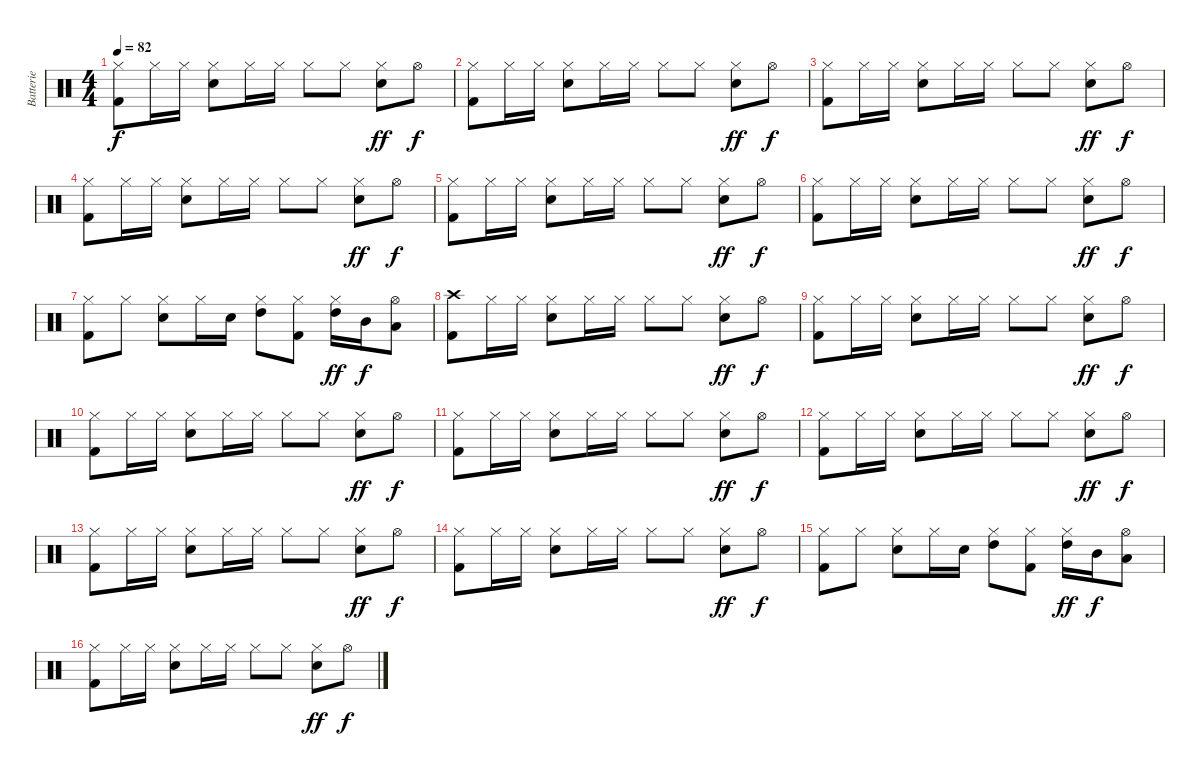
\track ("Batterie" "Batterie") {instrument percussion}
\staff {score}
\articulation defaults
\ts (4 4)
\tempo 82
\clef neutral
\ks c
("Hi-Hat (closed)" "Kick (hit) 2").8{dy f} "Hi-Hat (closed)".16 "Hi-Hat (closed)".16 ("Hi-Hat (closed)" "Electric Snare (hit)").8 "Hi-Hat (closed)".16 "Hi-Hat (closed)".16 "Hi-Hat (closed)".8 "Hi-Hat (closed)".8 ("Hi-Hat (closed)" "Electric Snare (hit)").8{dy ff} "Hi-Hat (open)".8{dy f} |
("Hi-Hat (closed)" "Kick (hit) 2").8 "Hi-Hat (closed)".16 "Hi-Hat (closed)".16 ("Hi-Hat (closed)" "Electric Snare (hit)").8 "Hi-Hat (closed)".16 "Hi-Hat (closed)".16 "Hi-Hat (closed)".8 "Hi-Hat (closed)".8 ("Hi-Hat (closed)" "Electric Snare (hit)").8{dy ff} "Hi-Hat (open)".8{dy f} |
("Hi-Hat (closed)" "Kick (hit) 2").8 "Hi-Hat (closed)".16 "Hi-Hat (closed)".16 ("Hi-Hat (closed)" "Electric Snare (hit)").8 "Hi-Hat (closed)".16 "Hi-Hat (closed)".16 "Hi-Hat (closed)".8 "Hi-Hat (closed)".8 ("Hi-Hat (closed)" "Electric Snare (hit)").8{dy ff} "Hi-Hat (open)".8{dy f} |
("Hi-Hat (closed)" "Kick (hit) 2").8 "Hi-Hat (closed)".16 "Hi-Hat (closed)".16 ("Hi-Hat (closed)" "Electric Snare (hit)").8 "Hi-Hat (closed)".16 "Hi-Hat (closed)".16 "Hi-Hat (closed)".8 "Hi-Hat (closed)".8 ("Hi-Hat (closed)" "Electric Snare (hit)").8{dy ff} "Hi-Hat (open)".8{dy f} |
("Hi-Hat (closed)" "Kick (hit) 2").8 "Hi-Hat (closed)".16 "Hi-Hat (closed)".16 ("Hi-Hat (closed)" "Electric Snare (hit)").8 "Hi-Hat (closed)".16 "Hi-Hat (closed)".16 "Hi-Hat (closed)".8 "Hi-Hat (closed)".8 ("Hi-Hat (closed)" "Electric Snare (hit)").8{dy ff} "Hi-Hat (open)".8{dy f} |
("Hi-Hat (closed)" "Kick (hit) 2").8 "Hi-Hat (closed)".16 "Hi-Hat (closed)".16 ("Hi-Hat (closed)" "Electric Snare (hit)").8 "Hi-Hat (closed)".16 "Hi-Hat (closed)".16 "Hi-Hat (closed)".8 "Hi-Hat (closed)".8 ("Hi-Hat (closed)" "Electric Snare (hit)").8{dy ff} "Hi-Hat (open)".8{dy f} |
("Hi-Hat (closed)" "Kick (hit) 2").8 "Hi-Hat (closed)".8 ("Hi-Hat (closed)" "Electric Snare (hit)").8 "Hi-Hat (closed)".16 "Electric Snare (hit)".16 ("Hi-Hat (closed)" "High Tom (hit)").8 ("Hi-Hat (closed)" "Kick (hit) 2").8 ("Hi-Hat (closed)" "High Tom (hit)").16{dy ff} "Mid Tom (hit)".16{dy f} ("Hi-Hat (open)" "Low Tom (hit)").8 |
("Crash high (hit)" "Kick (hit) 2").8 "Hi-Hat (closed)".16 "Hi-Hat (closed)".16 ("Hi-Hat (closed)" "Electric Snare (hit)").8 "Hi-Hat (closed)".16 "Hi-Hat (closed)".16 "Hi-Hat (closed)".8 "Hi-Hat (closed)".8 ("Hi-Hat (closed)" "Electric Snare (hit)").8{dy ff} "Hi-Hat (open)".8{dy f} |
("Hi-Hat (closed)" "Kick (hit) 2").8 "Hi-Hat (closed)".16 "Hi-Hat (closed)".16 ("Hi-Hat (closed)" "Electric Snare (hit)").8 "Hi-Hat (closed)".16 "Hi-Hat (closed)".16 "Hi-Hat (closed)".8 "Hi-Hat (closed)".8 ("Hi-Hat (closed)" "Electric Snare (hit)").8{dy ff} "Hi-Hat (open)".8{dy f} |
("Hi-Hat (closed)" "Kick (hit) 2").8 "Hi-Hat (closed)".16 "Hi-Hat (closed)".16 ("Hi-Hat (closed)" "Electric Snare (hit)").8 "Hi-Hat (closed)".16 "Hi-Hat (closed)".16 "Hi-Hat (closed)".8 "Hi-Hat (closed)".8 ("Hi-Hat (closed)" "Electric Snare (hit)").8{dy ff} "Hi-Hat (open)".8{dy f} |
("Hi-Hat (closed)" "Kick (hit) 2").8 "Hi-Hat (closed)".16 "Hi-Hat (closed)".16 ("Hi-Hat (closed)" "Electric Snare (hit)").8 "Hi-Hat (closed)".16 "Hi-Hat (closed)".16 "Hi-Hat (closed)".8 "Hi-Hat (closed)".8 ("Hi-Hat (closed)" "Electric Snare (hit)").8{dy ff} "Hi-Hat (open)".8{dy f} |
("Hi-Hat (closed)" "Kick (hit) 2").8 "Hi-Hat (closed)".16 "Hi-Hat (closed)".16 ("Hi-Hat (closed)" "Electric Snare (hit)").8 "Hi-Hat (closed)".16 "Hi-Hat (closed)".16 "Hi-Hat (closed)".8 "Hi-Hat (closed)".8 ("Hi-Hat (closed)" "Electric Snare (hit)").8{dy ff} "Hi-Hat (open)".8{dy f} |
("Hi-Hat (closed)" "Kick (hit) 2").8 "Hi-Hat (closed)".16 "Hi-Hat (closed)".16 ("Hi-Hat (closed)" "Electric Snare (hit)").8 "Hi-Hat (closed)".16 "Hi-Hat (closed)".16 "Hi-Hat (closed)".8 "Hi-Hat (closed)".8 ("Hi-Hat (closed)" "Electric Snare (hit)").8{dy ff} "Hi-Hat (open)".8{dy f} |
("Hi-Hat (closed)" "Kick (hit) 2").8 "Hi-Hat (closed)".16 "Hi-Hat (closed)".16 ("Hi-Hat (closed)" "Electric Snare (hit)").8 "Hi-Hat (closed)".16 "Hi-Hat (closed)".16 "Hi-Hat (closed)".8 "Hi-Hat (closed)".8 ("Hi-Hat (closed)" "Electric Snare (hit)").8{dy ff} "Hi-Hat (open)".8{dy f} |
("Hi-Hat (closed)" "Kick (hit) 2").8 "Hi-Hat (closed)".8 ("Hi-Hat (closed)" "Electric Snare (hit)").8 "Hi-Hat (closed)".16 "Electric Snare (hit)".16 ("Hi-Hat (closed)" "High Tom (hit)").8 ("Hi-Hat (closed)" "Kick (hit) 2").8 ("Hi-Hat (closed)" "High Tom (hit)").16{dy ff} "Mid Tom (hit)".16{dy f} ("Hi-Hat (open)" "Low Tom (hit)").8 |
("Hi-Hat (closed)" "Kick (hit) 2").8 "Hi-Hat (closed)".16 "Hi-Hat (closed)".16 ("Hi-Hat (closed)" "Electric Snare (hit)").8 "Hi-Hat (closed)".16 "Hi-Hat (closed)".16 "Hi-Hat (closed)".8 "Hi-Hat (closed)".8 ("Hi-Hat (closed)" "Electric Snare (hit)").8{dy ff} "Hi-Hat (open)".8{dy f}
